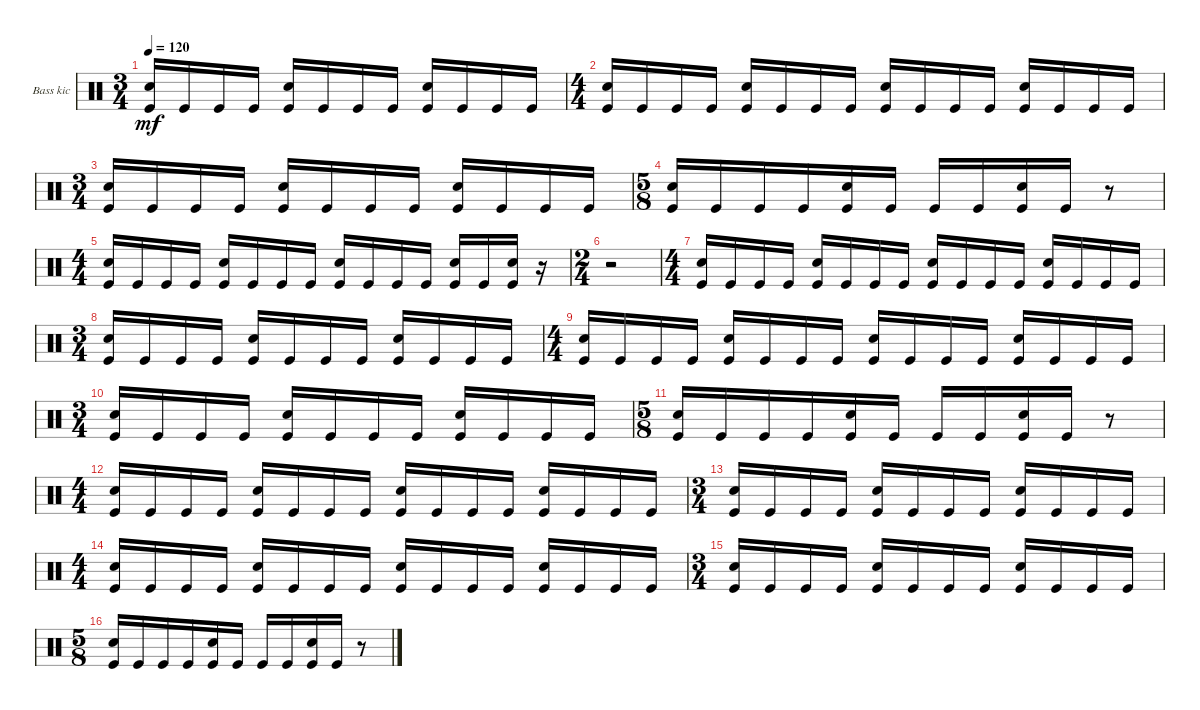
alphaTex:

\bracketExtendMode groupsimilarinstruments
\firstSystemTrackNameOrientation horizontal
\otherSystemsTrackNameOrientation horizontal
\track ("Bass kick" "Bass kic") {multiBarRest instrument percussion}
\staff {score}
\articulation defaults
\ts (3 4)
\tempo 120
\clef neutral
\scale
0.333333
\ks c
("Kick (hit)" "Snare (hit) 2").16{dy mf} "Kick (hit)".16 "Kick (hit)".16 "Kick (hit)".16 ("Kick (hit)" "Snare (hit) 2").16 "Kick (hit)".16 "Kick (hit)".16 "Kick (hit)".16 ("Kick (hit)" "Snare (hit) 2").16 "Kick (hit)".16 "Kick (hit)".16 "Kick (hit)".16 |
\ts (4 4)
\scale
0.333333 ("Kick (hit)" "Snare (hit) 2").16 "Kick (hit)".16 "Kick (hit)".16 "Kick (hit)".16 ("Kick (hit)" "Snare (hit) 2").16 "Kick (hit)".16 "Kick (hit)".16 "Kick (hit)".16 ("Kick (hit)" "Snare (hit) 2").16 "Kick (hit)".16 "Kick (hit)".16 "Kick (hit)".16 ("Kick (hit)" "Snare (hit) 2").16 "Kick (hit)".16 "Kick (hit)".16 "Kick (hit)".16 |
\ts (3 4)
\scale
0.333333 ("Kick (hit)" "Snare (hit) 2").16 "Kick (hit)".16 "Kick (hit)".16 "Kick (hit)".16 ("Kick (hit)" "Snare (hit) 2").16 "Kick (hit)".16 "Kick (hit)".16 "Kick (hit)".16 ("Kick (hit)" "Snare (hit) 2").16 "Kick (hit)".16 "Kick (hit)".16 "Kick (hit)".16 |
\ts (5 8)
\scale
0.333333 ("Kick (hit)" "Snare (hit) 2").16 "Kick (hit)".16 "Kick (hit)".16 "Kick (hit)".16 ("Kick (hit)" "Snare (hit) 2").16 "Kick (hit)".16 "Kick (hit)".16 "Kick (hit)".16 ("Kick (hit)" "Snare (hit) 2").16 "Kick (hit)".16 r.8 |
\ts (4 4)
\scale
0.333333 ("Kick (hit)" "Snare (hit) 2").16 "Kick (hit)".16 "Kick (hit)".16 "Kick (hit)".16 ("Kick (hit)" "Snare (hit) 2").16 "Kick (hit)".16 "Kick (hit)".16 "Kick (hit)".16 ("Kick (hit)" "Snare (hit) 2").16 "Kick (hit)".16 "Kick (hit)".16 "Kick (hit)".16 ("Kick (hit)" "Snare (hit) 2").16 "Kick (hit)".16 ("Kick (hit)" "Snare (hit) 2").16 r.16 |
\ts (2 4)
\scale
0.333333 r.2 |
\ts (4 4)
\scale
0.333333 ("Kick (hit)" "Snare (hit) 2").16 "Kick (hit)".16 "Kick (hit)".16 "Kick (hit)".16 ("Kick (hit)" "Snare (hit) 2").16 "Kick (hit)".16 "Kick (hit)".16 "Kick (hit)".16 ("Kick (hit)" "Snare (hit) 2").16 "Kick (hit)".16 "Kick (hit)".16 "Kick (hit)".16 ("Kick (hit)" "Snare (hit) 2").16 "Kick (hit)".16 "Kick (hit)".16 "Kick (hit)".16 |
\ts (3 4)
\scale
0.333333 ("Kick (hit)" "Snare (hit) 2").16 "Kick (hit)".16 "Kick (hit)".16 "Kick (hit)".16 ("Kick (hit)" "Snare (hit) 2").16 "Kick (hit)".16 "Kick (hit)".16 "Kick (hit)".16 ("Kick (hit)" "Snare (hit) 2").16 "Kick (hit)".16 "Kick (hit)".16 "Kick (hit)".16 |
\ts (4 4)
\scale
0.333333 ("Kick (hit)" "Snare (hit) 2").16 "Kick (hit)".16 "Kick (hit)".16 "Kick (hit)".16 ("Kick (hit)" "Snare (hit) 2").16 "Kick (hit)".16 "Kick (hit)".16 "Kick (hit)".16 ("Kick (hit)" "Snare (hit) 2").16 "Kick (hit)".16 "Kick (hit)".16 "Kick (hit)".16 ("Kick (hit)" "Snare (hit) 2").16 "Kick (hit)".16 "Kick (hit)".16 "Kick (hit)".16 |
\ts (3 4)
\scale
0.333333 ("Kick (hit)" "Snare (hit) 2").16 "Kick (hit)".16 "Kick (hit)".16 "Kick (hit)".16 ("Kick (hit)" "Snare (hit) 2").16 "Kick (hit)".16 "Kick (hit)".16 "Kick (hit)".16 ("Kick (hit)" "Snare (hit) 2").16 "Kick (hit)".16 "Kick (hit)".16 "Kick (hit)".16 |
\ts (5 8)
\scale
0.333333 ("Kick (hit)" "Snare (hit) 2").16 "Kick (hit)".16 "Kick (hit)".16 "Kick (hit)".16 ("Kick (hit)" "Snare (hit) 2").16 "Kick (hit)".16 "Kick (hit)".16 "Kick (hit)".16 ("Kick (hit)" "Snare (hit) 2").16 "Kick (hit)".16 r.8 |
\ts (4 4)
\scale
0.333333 ("Kick (hit)" "Snare (hit) 2").16 "Kick (hit)".16 "Kick (hit)".16 "Kick (hit)".16 ("Kick (hit)" "Snare (hit) 2").16 "Kick (hit)".16 "Kick (hit)".16 "Kick (hit)".16 ("Kick (hit)" "Snare (hit) 2").16 "Kick (hit)".16 "Kick (hit)".16 "Kick (hit)".16 ("Kick (hit)" "Snare (hit) 2").16 "Kick (hit)".16 "Kick (hit)".16 "Kick (hit)".16 |
\ts (3 4)
\scale
0.333333 ("Kick (hit)" "Snare (hit) 2").16 "Kick (hit)".16 "Kick (hit)".16 "Kick (hit)".16 ("Kick (hit)" "Snare (hit) 2").16 "Kick (hit)".16 "Kick (hit)".16 "Kick (hit)".16 ("Kick (hit)" "Snare (hit) 2").16 "Kick (hit)".16 "Kick (hit)".16 "Kick (hit)".16 |
\ts (4 4)
\scale
0.333333 ("Kick (hit)" "Snare (hit) 2").16 "Kick (hit)".16 "Kick (hit)".16 "Kick (hit)".16 ("Kick (hit)" "Snare (hit) 2").16 "Kick (hit)".16 "Kick (hit)".16 "Kick (hit)".16 ("Kick (hit)" "Snare (hit) 2").16 "Kick (hit)".16 "Kick (hit)".16 "Kick (hit)".16 ("Kick (hit)" "Snare (hit) 2").16 "Kick (hit)".16 "Kick (hit)".16 "Kick (hit)".16 |
\ts (3 4)
\scale
0.333333 ("Kick (hit)" "Snare (hit) 2").16 "Kick (hit)".16 "Kick (hit)".16 "Kick (hit)".16 ("Kick (hit)" "Snare (hit) 2").16 "Kick (hit)".16 "Kick (hit)".16 "Kick (hit)".16 ("Kick (hit)" "Snare (hit) 2").16 "Kick (hit)".16 "Kick (hit)".16 "Kick (hit)".16 |
\ts (5 8)
\scale
0.333333 ("Kick (hit)" "Snare (hit) 2").16 "Kick (hit)".16 "Kick (hit)".16 "Kick (hit)".16 ("Kick (hit)" "Snare (hit) 2").16 "Kick (hit)".16 "Kick (hit)".16 "Kick (hit)".16 ("Kick (hit)" "Snare (hit) 2").16 "Kick (hit)".16 r.8
